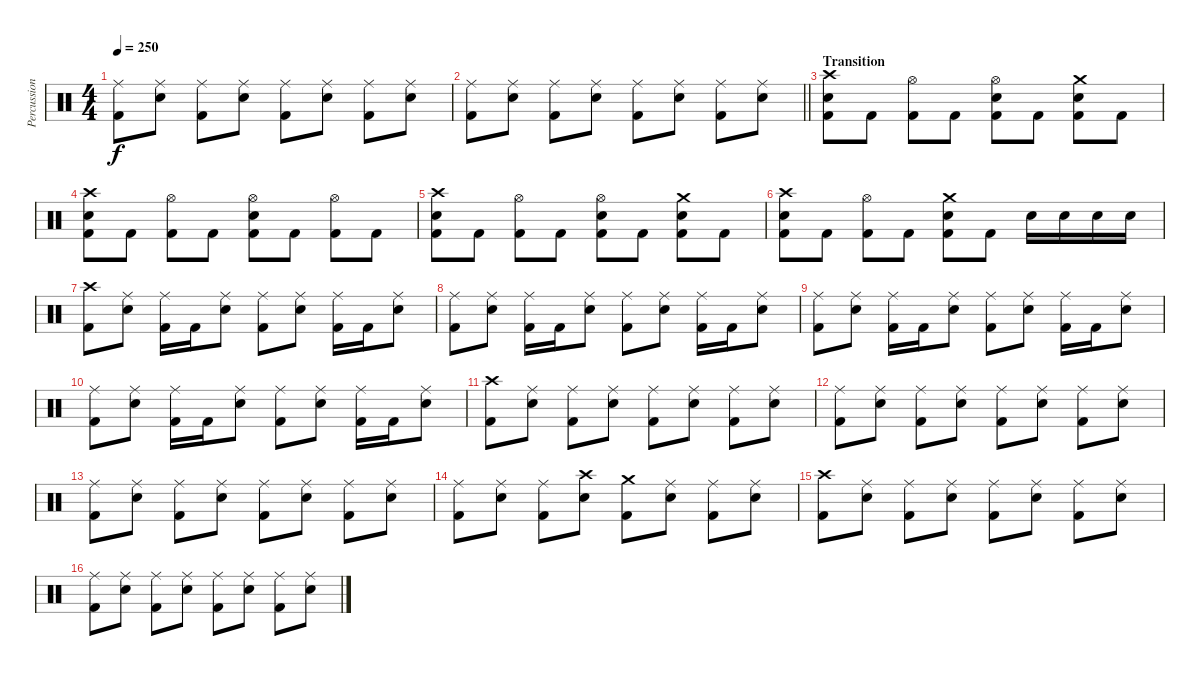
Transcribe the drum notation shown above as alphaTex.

\track ("Percussion" "Percussion") {instrument percussion}
\staff {score}
\articulation defaults
\ts (4 4)
\tempo 250
\clef neutral
\ks c
("Ride (middle)" "Kick (hit) 2").8{dy f} ("Ride (middle)" "Electric Snare (hit)").8 ("Ride (middle)" "Kick (hit) 2").8 ("Ride (middle)" "Electric Snare (hit)").8 ("Ride (middle)" "Kick (hit) 2").8 ("Ride (middle)" "Electric Snare (hit)").8 ("Ride (middle)" "Kick (hit) 2").8 ("Ride (middle)" "Electric Snare (hit)").8 |
\barLineRight lightlight
("Ride (middle)" "Kick (hit) 2").8 ("Ride (middle)" "Electric Snare (hit)").8 ("Ride (middle)" "Kick (hit) 2").8 ("Ride (middle)" "Electric Snare (hit)").8 ("Ride (middle)" "Kick (hit) 2").8 ("Ride (middle)" "Electric Snare (hit)").8 ("Ride (middle)" "Kick (hit) 2").8 ("Ride (middle)" "Electric Snare (hit)").8 |
\section ("" "Transition ")
("Crash high (hit)" "Kick (hit) 2" "Electric Snare (hit)").8 "Kick (hit) 2".8 ("Hi-Hat (open)" "Kick (hit) 2").8 "Kick (hit) 2".8 ("Hi-Hat (open)" "Kick (hit) 2" "Electric Snare (hit)").8 "Kick (hit) 2".8 ("Crash medium (hit)" "Kick (hit) 2" "Electric Snare (hit)").8 "Kick (hit) 2".8 |
("Crash high (hit)" "Kick (hit) 2" "Electric Snare (hit)").8 "Kick (hit) 2".8 ("Hi-Hat (open)" "Kick (hit) 2").8 "Kick (hit) 2".8 ("Hi-Hat (open)" "Kick (hit) 2" "Electric Snare (hit)").8 "Kick (hit) 2".8 ("Hi-Hat (open)" "Kick (hit) 2").8 "Kick (hit) 2".8 |
("Crash high (hit)" "Kick (hit) 2" "Electric Snare (hit)").8 "Kick (hit) 2".8 ("Hi-Hat (open)" "Kick (hit) 2").8 "Kick (hit) 2".8 ("Hi-Hat (open)" "Kick (hit) 2" "Electric Snare (hit)").8 "Kick (hit) 2".8 ("Crash medium (hit)" "Kick (hit) 2" "Electric Snare (hit)").8 "Kick (hit) 2".8 |
("Crash high (hit)" "Kick (hit) 2" "Electric Snare (hit)").8 "Kick (hit) 2".8 ("Hi-Hat (open)" "Kick (hit) 2").8 "Kick (hit) 2".8 ("Crash medium (hit)" "Kick (hit) 2" "Electric Snare (hit)").8 "Kick (hit) 2".8 "Electric Snare (hit)".16 "Electric Snare (hit)".16 "Electric Snare (hit)".16 "Electric Snare (hit)".16 |
("Crash high (hit)" "Kick (hit) 2").8 ("Ride (middle)" "Electric Snare (hit)").8 ("Ride (middle)" "Kick (hit) 2").16 "Kick (hit) 2".16 ("Ride (middle)" "Electric Snare (hit)").8 ("Ride (middle)" "Kick (hit) 2").8 ("Ride (middle)" "Electric Snare (hit)").8 ("Ride (middle)" "Kick (hit) 2").16 "Kick (hit) 2".16 ("Ride (middle)" "Electric Snare (hit)").8 |
("Ride (middle)" "Kick (hit) 2").8 ("Ride (middle)" "Electric Snare (hit)").8 ("Ride (middle)" "Kick (hit) 2").16 "Kick (hit) 2".16 ("Ride (middle)" "Electric Snare (hit)").8 ("Ride (middle)" "Kick (hit) 2").8 ("Ride (middle)" "Electric Snare (hit)").8 ("Ride (middle)" "Kick (hit) 2").16 "Kick (hit) 2".16 ("Ride (middle)" "Electric Snare (hit)").8 |
("Ride (middle)" "Kick (hit) 2").8 ("Ride (middle)" "Electric Snare (hit)").8 ("Ride (middle)" "Kick (hit) 2").16 "Kick (hit) 2".16 ("Ride (middle)" "Electric Snare (hit)").8 ("Ride (middle)" "Kick (hit) 2").8 ("Ride (middle)" "Electric Snare (hit)").8 ("Ride (middle)" "Kick (hit) 2").16 "Kick (hit) 2".16 ("Ride (middle)" "Electric Snare (hit)").8 |
("Ride (middle)" "Kick (hit) 2").8 ("Ride (middle)" "Electric Snare (hit)").8 ("Ride (middle)" "Kick (hit) 2").16 "Kick (hit) 2".16 ("Ride (middle)" "Electric Snare (hit)").8 ("Ride (middle)" "Kick (hit) 2").8 ("Ride (middle)" "Electric Snare (hit)").8 ("Ride (middle)" "Kick (hit) 2").16 "Kick (hit) 2".16 ("Ride (middle)" "Electric Snare (hit)").8 |
("Crash high (hit)" "Kick (hit) 2").8 ("Ride (middle)" "Electric Snare (hit)").8 ("Ride (middle)" "Kick (hit) 2").8 ("Ride (middle)" "Electric Snare (hit)").8 ("Ride (middle)" "Kick (hit) 2").8 ("Ride (middle)" "Electric Snare (hit)").8 ("Ride (middle)" "Kick (hit) 2").8 ("Ride (middle)" "Electric Snare (hit)").8 |
("Ride (middle)" "Kick (hit) 2").8 ("Ride (middle)" "Electric Snare (hit)").8 ("Ride (middle)" "Kick (hit) 2").8 ("Ride (middle)" "Electric Snare (hit)").8 ("Ride (middle)" "Kick (hit) 2").8 ("Ride (middle)" "Electric Snare (hit)").8 ("Ride (middle)" "Kick (hit) 2").8 ("Ride (middle)" "Electric Snare (hit)").8 |
("Ride (middle)" "Kick (hit) 2").8 ("Ride (middle)" "Electric Snare (hit)").8 ("Ride (middle)" "Kick (hit) 2").8 ("Ride (middle)" "Electric Snare (hit)").8 ("Ride (middle)" "Kick (hit) 2").8 ("Ride (middle)" "Electric Snare (hit)").8 ("Ride (middle)" "Kick (hit) 2").8 ("Ride (middle)" "Electric Snare (hit)").8 |
("Ride (middle)" "Kick (hit) 2").8 ("Ride (middle)" "Electric Snare (hit)").8 ("Ride (middle)" "Kick (hit) 2").8 ("Crash high (hit)" "Electric Snare (hit)").8 ("Crash medium (hit)" "Kick (hit) 2").8 ("Ride (middle)" "Electric Snare (hit)").8 ("Ride (middle)" "Kick (hit) 2").8 ("Ride (middle)" "Electric Snare (hit)").8 |
("Crash high (hit)" "Kick (hit) 2").8 ("Ride (middle)" "Electric Snare (hit)").8 ("Ride (middle)" "Kick (hit) 2").8 ("Ride (middle)" "Electric Snare (hit)").8 ("Ride (middle)" "Kick (hit) 2").8 ("Ride (middle)" "Electric Snare (hit)").8 ("Ride (middle)" "Kick (hit) 2").8 ("Ride (middle)" "Electric Snare (hit)").8 |
("Ride (middle)" "Kick (hit) 2").8 ("Ride (middle)" "Electric Snare (hit)").8 ("Ride (middle)" "Kick (hit) 2").8 ("Ride (middle)" "Electric Snare (hit)").8 ("Ride (middle)" "Kick (hit) 2").8 ("Ride (middle)" "Electric Snare (hit)").8 ("Ride (middle)" "Kick (hit) 2").8 ("Ride (middle)" "Electric Snare (hit)").8
